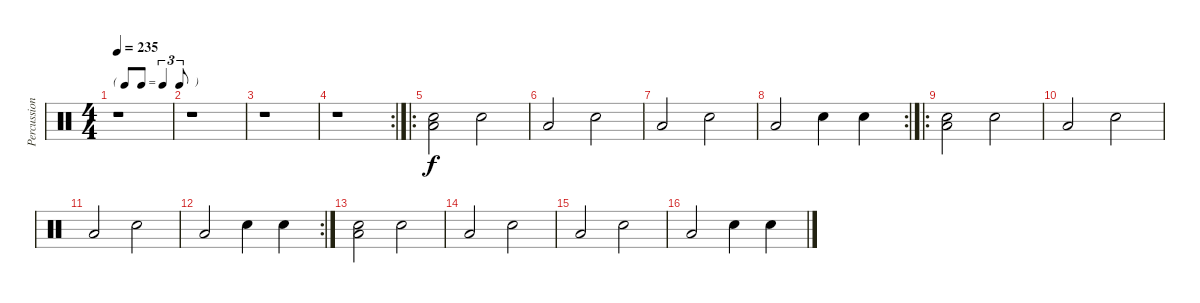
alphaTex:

\track ("Percussions" "Percussion") {instrument percussion}
\staff {score}
\articulation defaults
\ts (4 4)
\tf triplet8th
\tempo 235
\clef neutral
\ks c
r.1{dy f} |
r.1 |
r.1 |
\rc 2
r.1 |
\ro
("Snare (hit)" "Low Tom (hit)").2 "Snare (hit) 2".2 |
"Low Tom (hit)".2 "Snare (hit) 2".2 |
"Low Tom (hit)".2 "Snare (hit) 2".2 |
\rc 2 "Low Tom (hit)".2 "Snare (hit) 2".4 "Snare (hit) 2".4
|
\ro
("Snare (hit)" "Low Tom (hit)").2 "Snare (hit) 2".2 |
"Low Tom (hit)".2 "Snare (hit) 2".2 |
"Low Tom (hit)".2 "Snare (hit) 2".2 |
\rc 2 "Low Tom (hit)".2 "Snare (hit) 2".4 "Snare (hit) 2".4
|
("Snare (hit)" "Low Tom (hit)").2 "Snare (hit) 2".2 |
"Low Tom (hit)".2 "Snare (hit) 2".2 |
"Low Tom (hit)".2 "Snare (hit) 2".2 |
"Low Tom (hit)".2 "Snare (hit) 2".4 "Snare (hit) 2".4
